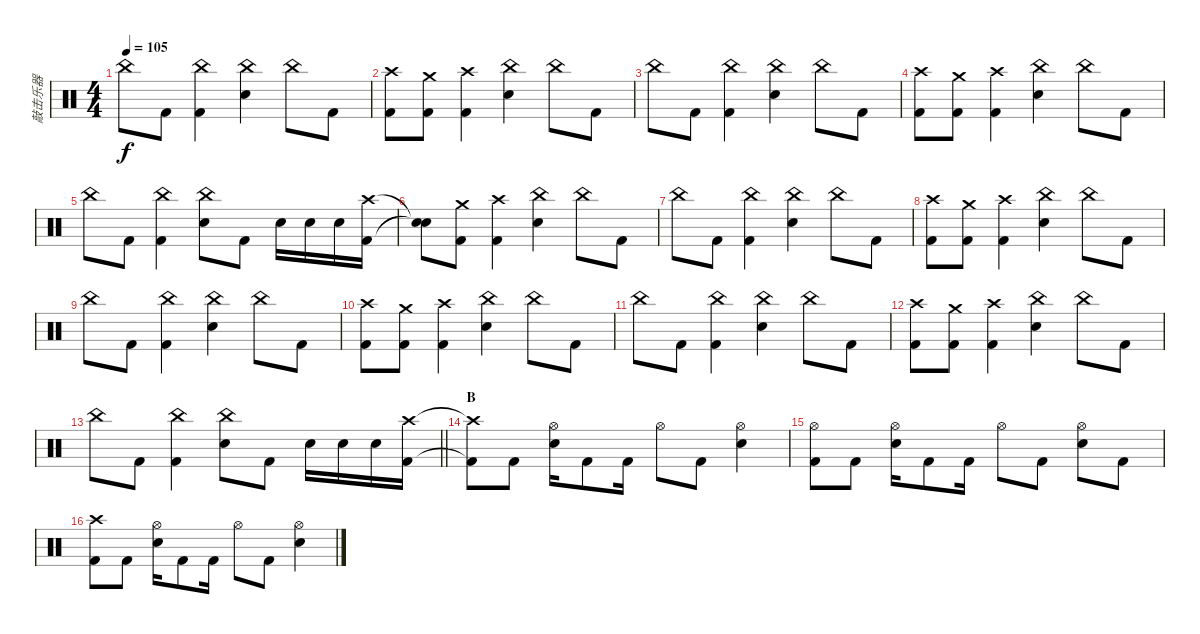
\track ("敲击乐器" "敲击乐器") {instrument percussion}
\staff {score}
\articulation defaults
\ts (4 4)
\tempo 105
\clef neutral
\ks c "China (hit)".8{dy f} "Kick (hit) 2".8
("China (hit)" "Kick (hit) 2").4 ("China (hit)" "Electric Snare (hit)").4 "China (hit)".8 "Kick (hit) 2".8 |
("Crash high (hit)" "Kick (hit) 2").8 ("Crash medium (hit)" "Kick (hit) 2").8 ("Crash high (hit)" "Kick (hit) 2").4 ("China (hit)" "Electric Snare (hit)").4 "China (hit)".8 "Kick (hit) 2".8 |
"China (hit)".8 "Kick (hit) 2".8 ("China (hit)" "Kick (hit) 2").4 ("China (hit)" "Electric Snare (hit)").4 "China (hit)".8 "Kick (hit) 2".8 |
("Crash high (hit)" "Kick (hit) 2").8 ("Crash medium (hit)" "Kick (hit) 2").8 ("Crash high (hit)" "Kick (hit) 2").4 ("China (hit)" "Electric Snare (hit)").4 "China (hit)".8 "Kick (hit) 2".8 |
"China (hit)".8 "Kick (hit) 2".8 ("China (hit)" "Kick (hit) 2").4 ("China (hit)" "Electric Snare (hit)").8 "Kick (hit) 2".8 "Electric Snare (hit)".16 "Electric Snare (hit)".16 "Electric Snare (hit)".16 ("Crash high (hit)" "Kick (hit) 2").16 |
("Snare (hit)"{t} "Snare (hit)"{t}).8 ("Crash medium (hit)" "Kick (hit) 2").8 ("Crash high (hit)" "Kick (hit) 2").4 ("China (hit)" "Electric Snare (hit)").4 "China (hit)".8 "Kick (hit) 2".8 |
"China (hit)".8 "Kick (hit) 2".8 ("China (hit)" "Kick (hit) 2").4 ("China (hit)" "Electric Snare (hit)").4 "China (hit)".8 "Kick (hit) 2".8 |
("Crash high (hit)" "Kick (hit) 2").8 ("Crash medium (hit)" "Kick (hit) 2").8 ("Crash high (hit)" "Kick (hit) 2").4 ("China (hit)" "Electric Snare (hit)").4 "China (hit)".8 "Kick (hit) 2".8 |
"China (hit)".8 "Kick (hit) 2".8 ("China (hit)" "Kick (hit) 2").4 ("China (hit)" "Electric Snare (hit)").4 "China (hit)".8 "Kick (hit) 2".8 |
("Crash high (hit)" "Kick (hit) 2").8 ("Crash medium (hit)" "Kick (hit) 2").8 ("Crash high (hit)" "Kick (hit) 2").4 ("China (hit)" "Electric Snare (hit)").4 "China (hit)".8 "Kick (hit) 2".8 |
"China (hit)".8 "Kick (hit) 2".8 ("China (hit)" "Kick (hit) 2").4 ("China (hit)" "Electric Snare (hit)").4 "China (hit)".8 "Kick (hit) 2".8 |
("Crash high (hit)" "Kick (hit) 2").8 ("Crash medium (hit)" "Kick (hit) 2").8 ("Crash high (hit)" "Kick (hit) 2").4 ("China (hit)" "Electric Snare (hit)").4 "China (hit)".8 "Kick (hit) 2".8 |
\barLineRight lightlight "China (hit)".8 "Kick (hit) 2".8
("China (hit)" "Kick (hit) 2").4 ("China (hit)" "Electric Snare (hit)").8 "Kick (hit) 2".8 "Electric Snare (hit)".16 "Electric Snare (hit)".16 "Electric Snare (hit)".16 ("Crash high (hit)" "Kick (hit) 2").16 |
\section ("" "B")
("Crash high (hit)"{t} "Kick (hit) 2"{t}).8 "Kick (hit) 2".8 ("Hi-Hat (open)" "Electric Snare (hit)").16 "Kick (hit) 2".8 "Kick (hit) 2".16 "Hi-Hat (open)".8 "Kick (hit) 2".8 ("Hi-Hat (open)" "Electric Snare (hit)").4 |
("Hi-Hat (open)" "Kick (hit) 2").8 "Kick (hit) 2".8 ("Hi-Hat (open)" "Electric Snare (hit)").16 "Kick (hit) 2".8 "Kick (hit) 2".16 "Hi-Hat (open)".8 "Kick (hit) 2".8 ("Hi-Hat (open)" "Electric Snare (hit)").8 "Kick (hit) 2".8 |
("Crash high (hit)" "Kick (hit) 2").8 "Kick (hit) 2".8 ("Hi-Hat (open)" "Electric Snare (hit)").16 "Kick (hit) 2".8 "Kick (hit) 2".16 "Hi-Hat (open)".8 "Kick (hit) 2".8 ("Hi-Hat (open)" "Electric Snare (hit)").4
